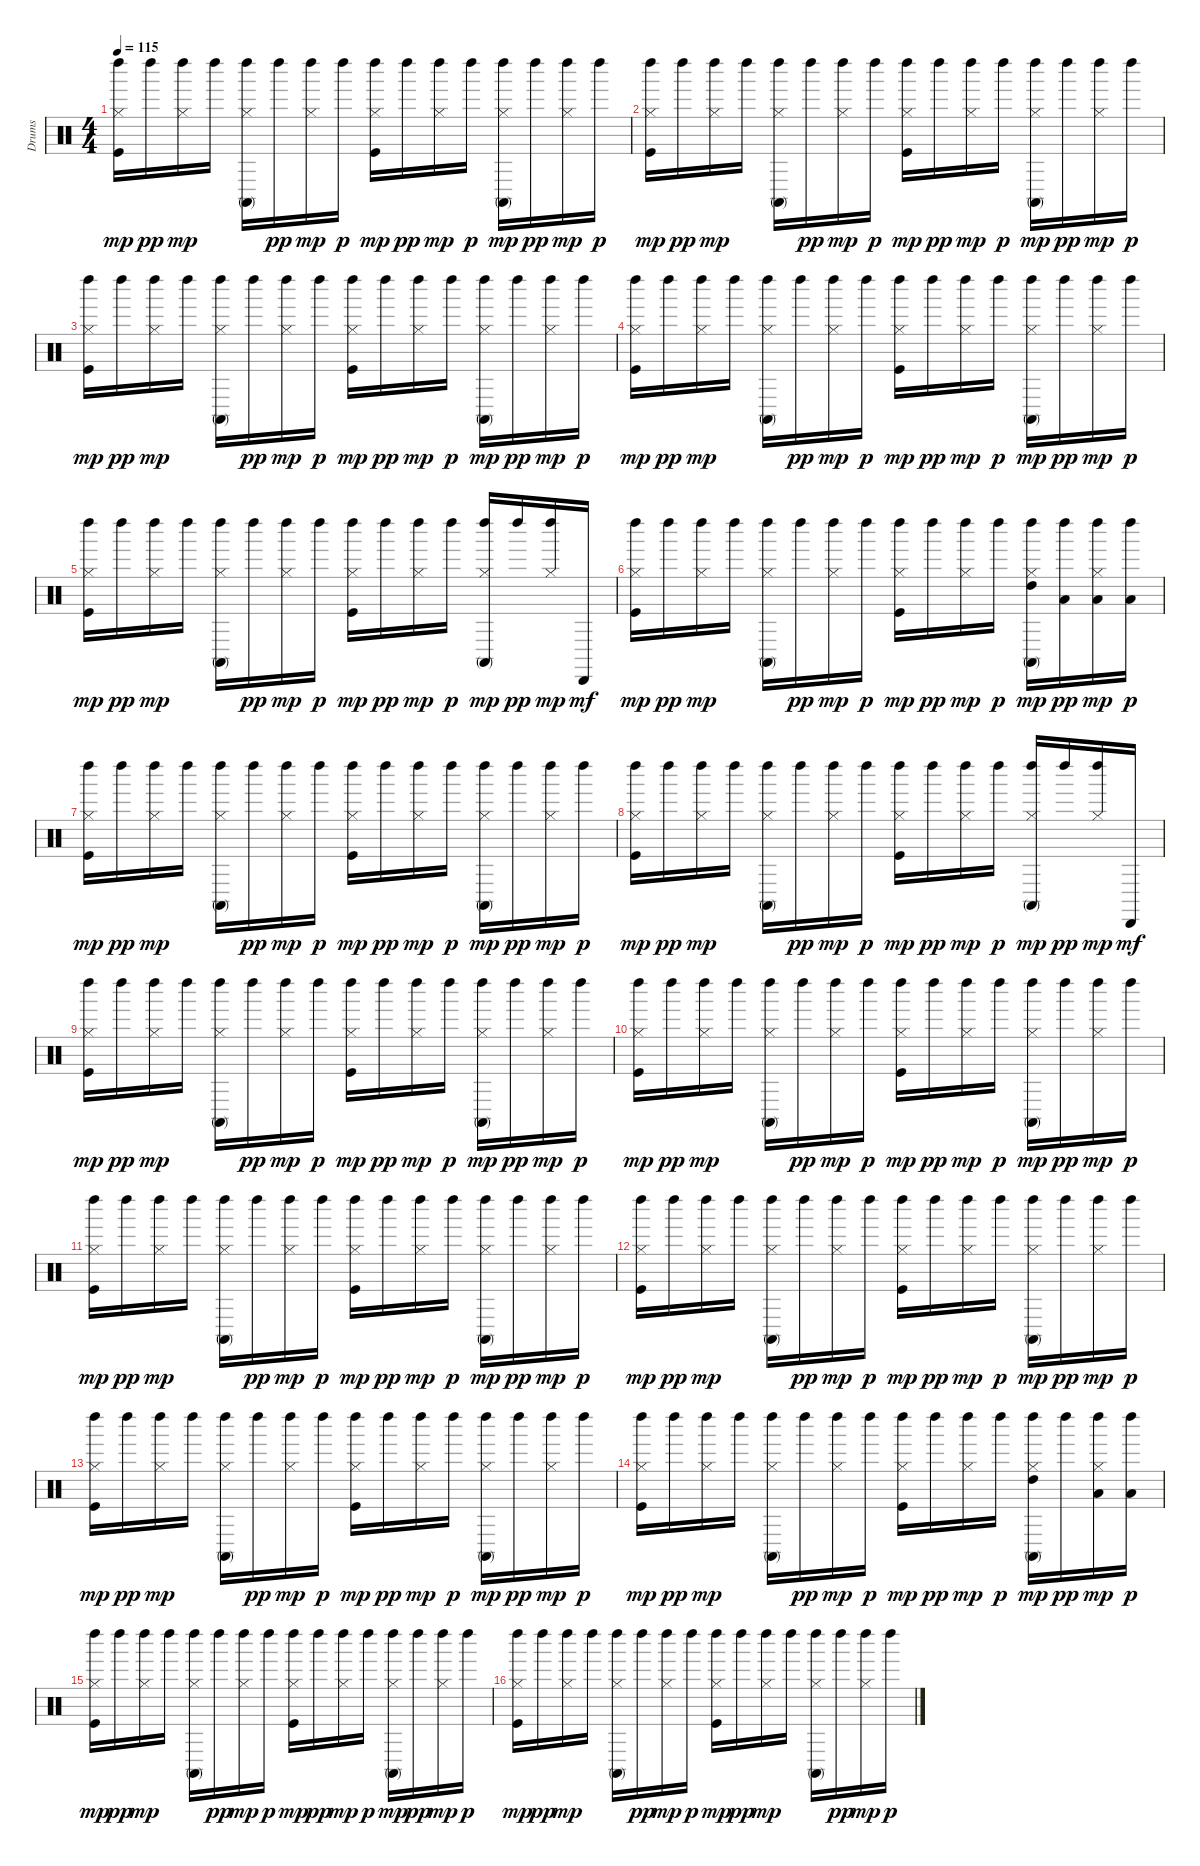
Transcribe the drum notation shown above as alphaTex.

\track ("Drums" "Drums") {instrument percussion}
\staff {score}
\articulation defaults
\ts (4 4)
\tempo 115
\clef neutral
\ks c
("Kick (hit)" "Hi-Hat (closed)" "Left Maraca (hit)").16{dy mp} "Left Maraca (hit)".16{dy pp} ("Hi-Hat (closed)" "Left Maraca (hit)").16{dy mp} "Left Maraca (hit)".16 ("Hi-Hat (closed)" "Conga high (mute)" "Left Maraca (hit)").16 "Left Maraca (hit)".16{dy pp} ("Hi-Hat (closed)" "Left Maraca (hit)").16{dy mp} "Left Maraca (hit)".16{dy p} ("Kick (hit)" "Hi-Hat (closed)" "Left Maraca (hit)").16{dy mp} "Left Maraca (hit)".16{dy pp} ("Hi-Hat (closed)" "Left Maraca (hit)").16{dy mp} "Left Maraca (hit)".16{dy p} ("Hi-Hat (closed)" "Conga high (mute)" "Left Maraca (hit)").16{dy mp} "Left Maraca (hit)".16{dy pp} ("Hi-Hat (closed)" "Left Maraca (hit)").16{dy mp} "Left Maraca (hit)".16{dy p} |
("Kick (hit)" "Hi-Hat (closed)" "Left Maraca (hit)").16{dy mp} "Left Maraca (hit)".16{dy pp} ("Hi-Hat (closed)" "Left Maraca (hit)").16{dy mp} "Left Maraca (hit)".16 ("Hi-Hat (closed)" "Conga high (mute)" "Left Maraca (hit)").16 "Left Maraca (hit)".16{dy pp} ("Hi-Hat (closed)" "Left Maraca (hit)").16{dy mp} "Left Maraca (hit)".16{dy p} ("Kick (hit)" "Hi-Hat (closed)" "Left Maraca (hit)").16{dy mp} "Left Maraca (hit)".16{dy pp} ("Hi-Hat (closed)" "Left Maraca (hit)").16{dy mp} "Left Maraca (hit)".16{dy p} ("Hi-Hat (closed)" "Conga high (mute)" "Left Maraca (hit)").16{dy mp} "Left Maraca (hit)".16{dy pp} ("Hi-Hat (closed)" "Left Maraca (hit)").16{dy mp} "Left Maraca (hit)".16{dy p} |
("Kick (hit)" "Hi-Hat (closed)" "Left Maraca (hit)").16{dy mp} "Left Maraca (hit)".16{dy pp} ("Hi-Hat (closed)" "Left Maraca (hit)").16{dy mp} "Left Maraca (hit)".16 ("Hi-Hat (closed)" "Conga high (mute)" "Left Maraca (hit)").16 "Left Maraca (hit)".16{dy pp} ("Hi-Hat (closed)" "Left Maraca (hit)").16{dy mp} "Left Maraca (hit)".16{dy p} ("Kick (hit)" "Hi-Hat (closed)" "Left Maraca (hit)").16{dy mp} "Left Maraca (hit)".16{dy pp} ("Hi-Hat (closed)" "Left Maraca (hit)").16{dy mp} "Left Maraca (hit)".16{dy p} ("Hi-Hat (closed)" "Conga high (mute)" "Left Maraca (hit)").16{dy mp} "Left Maraca (hit)".16{dy pp} ("Hi-Hat (closed)" "Left Maraca (hit)").16{dy mp} "Left Maraca (hit)".16{dy p} |
("Kick (hit)" "Hi-Hat (closed)" "Left Maraca (hit)").16{dy mp} "Left Maraca (hit)".16{dy pp} ("Hi-Hat (closed)" "Left Maraca (hit)").16{dy mp} "Left Maraca (hit)".16 ("Hi-Hat (closed)" "Conga high (mute)" "Left Maraca (hit)").16 "Left Maraca (hit)".16{dy pp} ("Hi-Hat (closed)" "Left Maraca (hit)").16{dy mp} "Left Maraca (hit)".16{dy p} ("Kick (hit)" "Hi-Hat (closed)" "Left Maraca (hit)").16{dy mp} "Left Maraca (hit)".16{dy pp} ("Hi-Hat (closed)" "Left Maraca (hit)").16{dy mp} "Left Maraca (hit)".16{dy p} ("Hi-Hat (closed)" "Conga high (mute)" "Left Maraca (hit)").16{dy mp} "Left Maraca (hit)".16{dy pp} ("Hi-Hat (closed)" "Left Maraca (hit)").16{dy mp} "Left Maraca (hit)".16{dy p} |
("Kick (hit)" "Hi-Hat (closed)" "Left Maraca (hit)").16{dy mp} "Left Maraca (hit)".16{dy pp} ("Hi-Hat (closed)" "Left Maraca (hit)").16{dy mp} "Left Maraca (hit)".16 ("Hi-Hat (closed)" "Conga high (mute)" "Left Maraca (hit)").16 "Left Maraca (hit)".16{dy pp} ("Hi-Hat (closed)" "Left Maraca (hit)").16{dy mp} "Left Maraca (hit)".16{dy p} ("Kick (hit)" "Hi-Hat (closed)" "Left Maraca (hit)").16{dy mp} "Left Maraca (hit)".16{dy pp} ("Hi-Hat (closed)" "Left Maraca (hit)").16{dy mp} "Left Maraca (hit)".16{dy p} ("Hi-Hat (closed)" "Conga high (mute)" "Left Maraca (hit)").16{dy mp} "Left Maraca (hit)".16{dy pp} ("Hi-Hat (closed)" "Left Maraca (hit)").16{dy mp} "Cabasa (hit)".16{dy mf} |
("Kick (hit)" "Hi-Hat (closed)" "Left Maraca (hit)").16{dy mp} "Left Maraca (hit)".16{dy pp} ("Hi-Hat (closed)" "Left Maraca (hit)").16{dy mp} "Left Maraca (hit)".16 ("Hi-Hat (closed)" "Conga high (mute)" "Left Maraca (hit)").16 "Left Maraca (hit)".16{dy pp} ("Hi-Hat (closed)" "Left Maraca (hit)").16{dy mp} "Left Maraca (hit)".16{dy p} ("Kick (hit)" "Hi-Hat (closed)" "Left Maraca (hit)").16{dy mp} "Left Maraca (hit)".16{dy pp} ("Hi-Hat (closed)" "Left Maraca (hit)").16{dy mp} "Left Maraca (hit)".16{dy p} ("Hi-Hat (closed)" "High Tom (hit)" "Conga high (mute)" "Left Maraca (hit)").16{dy mp} ("Low Tom (hit)" "Left Maraca (hit)").16{dy pp} ("Hi-Hat (closed)" "Low Floor Tom (hit)" "Left Maraca (hit)").16{dy mp} ("Low Tom (hit)" "Left Maraca (hit)").16{dy p} |
("Kick (hit)" "Hi-Hat (closed)" "Left Maraca (hit)").16{dy mp} "Left Maraca (hit)".16{dy pp} ("Hi-Hat (closed)" "Left Maraca (hit)").16{dy mp} "Left Maraca (hit)".16 ("Hi-Hat (closed)" "Conga high (mute)" "Left Maraca (hit)").16 "Left Maraca (hit)".16{dy pp} ("Hi-Hat (closed)" "Left Maraca (hit)").16{dy mp} "Left Maraca (hit)".16{dy p} ("Kick (hit)" "Hi-Hat (closed)" "Left Maraca (hit)").16{dy mp} "Left Maraca (hit)".16{dy pp} ("Hi-Hat (closed)" "Left Maraca (hit)").16{dy mp} "Left Maraca (hit)".16{dy p} ("Hi-Hat (closed)" "Conga high (mute)" "Left Maraca (hit)").16{dy mp} "Left Maraca (hit)".16{dy pp} ("Hi-Hat (closed)" "Left Maraca (hit)").16{dy mp} "Left Maraca (hit)".16{dy p} |
("Kick (hit)" "Hi-Hat (closed)" "Left Maraca (hit)").16{dy mp} "Left Maraca (hit)".16{dy pp} ("Hi-Hat (closed)" "Left Maraca (hit)").16{dy mp} "Left Maraca (hit)".16 ("Hi-Hat (closed)" "Conga high (mute)" "Left Maraca (hit)").16 "Left Maraca (hit)".16{dy pp} ("Hi-Hat (closed)" "Left Maraca (hit)").16{dy mp} "Left Maraca (hit)".16{dy p} ("Kick (hit)" "Hi-Hat (closed)" "Left Maraca (hit)").16{dy mp} "Left Maraca (hit)".16{dy pp} ("Hi-Hat (closed)" "Left Maraca (hit)").16{dy mp} "Left Maraca (hit)".16{dy p} ("Hi-Hat (closed)" "Conga high (mute)" "Left Maraca (hit)").16{dy mp} "Left Maraca (hit)".16{dy pp} ("Hi-Hat (closed)" "Left Maraca (hit)").16{dy mp} "Cabasa (hit)".16{dy mf} |
("Kick (hit)" "Hi-Hat (closed)" "Left Maraca (hit)").16{dy mp} "Left Maraca (hit)".16{dy pp} ("Hi-Hat (closed)" "Left Maraca (hit)").16{dy mp} "Left Maraca (hit)".16 ("Hi-Hat (closed)" "Conga high (mute)" "Left Maraca (hit)").16 "Left Maraca (hit)".16{dy pp} ("Hi-Hat (closed)" "Left Maraca (hit)").16{dy mp} "Left Maraca (hit)".16{dy p} ("Kick (hit)" "Hi-Hat (closed)" "Left Maraca (hit)").16{dy mp} "Left Maraca (hit)".16{dy pp} ("Hi-Hat (closed)" "Left Maraca (hit)").16{dy mp} "Left Maraca (hit)".16{dy p} ("Hi-Hat (closed)" "Conga high (mute)" "Left Maraca (hit)").16{dy mp} "Left Maraca (hit)".16{dy pp} ("Hi-Hat (closed)" "Left Maraca (hit)").16{dy mp} "Left Maraca (hit)".16{dy p} |
("Kick (hit)" "Hi-Hat (closed)" "Left Maraca (hit)").16{dy mp} "Left Maraca (hit)".16{dy pp} ("Hi-Hat (closed)" "Left Maraca (hit)").16{dy mp} "Left Maraca (hit)".16 ("Hi-Hat (closed)" "Conga high (mute)" "Left Maraca (hit)").16 "Left Maraca (hit)".16{dy pp} ("Hi-Hat (closed)" "Left Maraca (hit)").16{dy mp} "Left Maraca (hit)".16{dy p} ("Kick (hit)" "Hi-Hat (closed)" "Left Maraca (hit)").16{dy mp} "Left Maraca (hit)".16{dy pp} ("Hi-Hat (closed)" "Left Maraca (hit)").16{dy mp} "Left Maraca (hit)".16{dy p} ("Hi-Hat (closed)" "Conga high (mute)" "Left Maraca (hit)").16{dy mp} "Left Maraca (hit)".16{dy pp} ("Hi-Hat (closed)" "Left Maraca (hit)").16{dy mp} "Left Maraca (hit)".16{dy p} |
("Kick (hit)" "Hi-Hat (closed)" "Left Maraca (hit)").16{dy mp} "Left Maraca (hit)".16{dy pp} ("Hi-Hat (closed)" "Left Maraca (hit)").16{dy mp} "Left Maraca (hit)".16 ("Hi-Hat (closed)" "Conga high (mute)" "Left Maraca (hit)").16 "Left Maraca (hit)".16{dy pp} ("Hi-Hat (closed)" "Left Maraca (hit)").16{dy mp} "Left Maraca (hit)".16{dy p} ("Kick (hit)" "Hi-Hat (closed)" "Left Maraca (hit)").16{dy mp} "Left Maraca (hit)".16{dy pp} ("Hi-Hat (closed)" "Left Maraca (hit)").16{dy mp} "Left Maraca (hit)".16{dy p} ("Hi-Hat (closed)" "Conga high (mute)" "Left Maraca (hit)").16{dy mp} "Left Maraca (hit)".16{dy pp} ("Hi-Hat (closed)" "Left Maraca (hit)").16{dy mp} "Left Maraca (hit)".16{dy p} |
("Kick (hit)" "Hi-Hat (closed)" "Left Maraca (hit)").16{dy mp} "Left Maraca (hit)".16{dy pp} ("Hi-Hat (closed)" "Left Maraca (hit)").16{dy mp} "Left Maraca (hit)".16 ("Hi-Hat (closed)" "Conga high (mute)" "Left Maraca (hit)").16 "Left Maraca (hit)".16{dy pp} ("Hi-Hat (closed)" "Left Maraca (hit)").16{dy mp} "Left Maraca (hit)".16{dy p} ("Kick (hit)" "Hi-Hat (closed)" "Left Maraca (hit)").16{dy mp} "Left Maraca (hit)".16{dy pp} ("Hi-Hat (closed)" "Left Maraca (hit)").16{dy mp} "Left Maraca (hit)".16{dy p} ("Hi-Hat (closed)" "Conga high (mute)" "Left Maraca (hit)").16{dy mp} "Left Maraca (hit)".16{dy pp} ("Hi-Hat (closed)" "Left Maraca (hit)").16{dy mp} "Left Maraca (hit)".16{dy p} |
("Kick (hit)" "Hi-Hat (closed)" "Left Maraca (hit)").16{dy mp} "Left Maraca (hit)".16{dy pp} ("Hi-Hat (closed)" "Left Maraca (hit)").16{dy mp} "Left Maraca (hit)".16 ("Hi-Hat (closed)" "Conga high (mute)" "Left Maraca (hit)").16 "Left Maraca (hit)".16{dy pp} ("Hi-Hat (closed)" "Left Maraca (hit)").16{dy mp} "Left Maraca (hit)".16{dy p} ("Kick (hit)" "Hi-Hat (closed)" "Left Maraca (hit)").16{dy mp} "Left Maraca (hit)".16{dy pp} ("Hi-Hat (closed)" "Left Maraca (hit)").16{dy mp} "Left Maraca (hit)".16{dy p} ("Hi-Hat (closed)" "Conga high (mute)" "Left Maraca (hit)").16{dy mp} "Left Maraca (hit)".16{dy pp} ("Hi-Hat (closed)" "Left Maraca (hit)").16{dy mp} "Left Maraca (hit)".16{dy p} |
("Kick (hit)" "Hi-Hat (closed)" "Left Maraca (hit)").16{dy mp} "Left Maraca (hit)".16{dy pp} ("Hi-Hat (closed)" "Left Maraca (hit)").16{dy mp} "Left Maraca (hit)".16 ("Hi-Hat (closed)" "Conga high (mute)" "Left Maraca (hit)").16 "Left Maraca (hit)".16{dy pp} ("Hi-Hat (closed)" "Left Maraca (hit)").16{dy mp} "Left Maraca (hit)".16{dy p} ("Kick (hit)" "Hi-Hat (closed)" "Left Maraca (hit)").16{dy mp} "Left Maraca (hit)".16{dy pp} ("Hi-Hat (closed)" "Left Maraca (hit)").16{dy mp} "Left Maraca (hit)".16{dy p} ("Hi-Hat (closed)" "High Tom (hit)" "Conga high (mute)" "Left Maraca (hit)").16{dy mp} "Left Maraca (hit)".16{dy pp} ("Hi-Hat (closed)" "Low Floor Tom (hit)" "Left Maraca (hit)").16{dy mp} ("Low Tom (hit)" "Left Maraca (hit)").16{dy p} |
("Kick (hit)" "Hi-Hat (closed)" "Left Maraca (hit)").16{dy mp} "Left Maraca (hit)".16{dy pp} ("Hi-Hat (closed)" "Left Maraca (hit)").16{dy mp} "Left Maraca (hit)".16 ("Hi-Hat (closed)" "Conga high (mute)" "Left Maraca (hit)").16 "Left Maraca (hit)".16{dy pp} ("Hi-Hat (closed)" "Left Maraca (hit)").16{dy mp} "Left Maraca (hit)".16{dy p} ("Kick (hit)" "Hi-Hat (closed)" "Left Maraca (hit)").16{dy mp} "Left Maraca (hit)".16{dy pp} ("Hi-Hat (closed)" "Left Maraca (hit)").16{dy mp} "Left Maraca (hit)".16{dy p} ("Hi-Hat (closed)" "Conga high (mute)" "Left Maraca (hit)").16{dy mp} "Left Maraca (hit)".16{dy pp} ("Hi-Hat (closed)" "Left Maraca (hit)").16{dy mp} "Left Maraca (hit)".16{dy p} |
("Kick (hit)" "Hi-Hat (closed)" "Left Maraca (hit)").16{dy mp} "Left Maraca (hit)".16{dy pp} ("Hi-Hat (closed)" "Left Maraca (hit)").16{dy mp} "Left Maraca (hit)".16 ("Hi-Hat (closed)" "Conga high (mute)" "Left Maraca (hit)").16 "Left Maraca (hit)".16{dy pp} ("Hi-Hat (closed)" "Left Maraca (hit)").16{dy mp} "Left Maraca (hit)".16{dy p} ("Kick (hit)" "Hi-Hat (closed)" "Left Maraca (hit)").16{dy mp} "Left Maraca (hit)".16{dy pp} ("Hi-Hat (closed)" "Left Maraca (hit)").16{dy mp} "Left Maraca (hit)".16 ("Hi-Hat (closed)" "Conga high (mute)" "Left Maraca (hit)").16 "Left Maraca (hit)".16{dy pp} ("Hi-Hat (closed)" "Left Maraca (hit)").16{dy mp} "Left Maraca (hit)".16{dy p}
